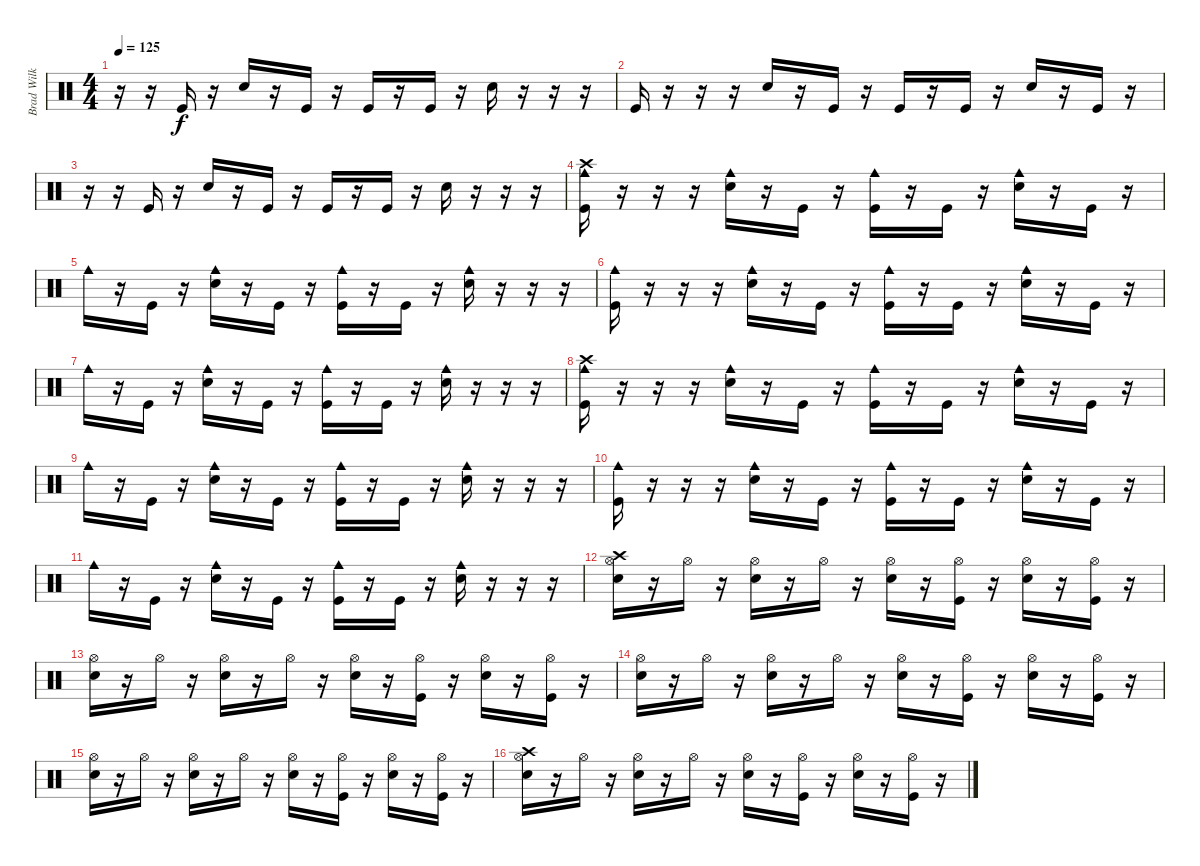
\track ("Brad Wilk - Drums" "Brad Wilk ") {instrument percussion}
\staff {score}
\articulation defaults
\ts (4 4)
\tempo 125
\clef neutral
\ks c
r.16{dy f} r.16 "Kick (hit)".16 r.16 "Snare (hit) 2".16 r.16 "Kick (hit)".16 r.16 "Kick (hit)".16 r.16 "Kick (hit)".16 r.16 "Snare (hit) 2".16 r.16 r.16 r.16 |
"Kick (hit)".16 r.16 r.16 r.16 "Snare (hit) 2".16 r.16 "Kick (hit)".16 r.16 "Kick (hit)".16 r.16 "Kick (hit)".16 r.16 "Snare (hit) 2".16 r.16 "Kick (hit)".16 r.16 |
r.16 r.16 "Kick (hit)".16 r.16 "Snare (hit) 2".16 r.16 "Kick (hit)".16 r.16 "Kick (hit)".16 r.16 "Kick (hit)".16 r.16 "Snare (hit) 2".16 r.16 r.16 r.16 |
("Crash high (hit)" "Cowbell medium (hit)" "Kick (hit)").16 r.16 r.16 r.16 ("Snare (hit) 2" "Cowbell medium (hit)").16 r.16 "Kick (hit)".16 r.16 ("Cowbell medium (hit)" "Kick (hit)").16 r.16 "Kick (hit)".16 r.16 ("Snare (hit) 2" "Cowbell medium (hit)").16 r.16 "Kick (hit)".16 r.16 |
"Cowbell medium (hit)".16 r.16 "Kick (hit)".16 r.16 ("Snare (hit) 2" "Cowbell medium (hit)").16 r.16 "Kick (hit)".16 r.16 ("Cowbell medium (hit)" "Kick (hit)").16 r.16 "Kick (hit)".16 r.16 ("Snare (hit) 2" "Cowbell medium (hit)").16 r.16 r.16 r.16 |
("Cowbell medium (hit)" "Kick (hit)").16 r.16 r.16 r.16 ("Snare (hit) 2" "Cowbell medium (hit)").16 r.16 "Kick (hit)".16 r.16 ("Cowbell medium (hit)" "Kick (hit)").16 r.16 "Kick (hit)".16 r.16 ("Snare (hit) 2" "Cowbell medium (hit)").16 r.16 "Kick (hit)".16 r.16 |
"Cowbell medium (hit)".16 r.16 "Kick (hit)".16 r.16 ("Snare (hit) 2" "Cowbell medium (hit)").16 r.16 "Kick (hit)".16 r.16 ("Cowbell medium (hit)" "Kick (hit)").16 r.16 "Kick (hit)".16 r.16 ("Snare (hit) 2" "Cowbell medium (hit)").16 r.16 r.16 r.16 |
("Crash high (hit)" "Cowbell medium (hit)" "Kick (hit)").16 r.16 r.16 r.16 ("Snare (hit) 2" "Cowbell medium (hit)").16 r.16 "Kick (hit)".16 r.16 ("Cowbell medium (hit)" "Kick (hit)").16 r.16 "Kick (hit)".16 r.16 ("Snare (hit) 2" "Cowbell medium (hit)").16 r.16 "Kick (hit)".16 r.16 |
"Cowbell medium (hit)".16 r.16 "Kick (hit)".16 r.16 ("Snare (hit) 2" "Cowbell medium (hit)").16 r.16 "Kick (hit)".16 r.16 ("Cowbell medium (hit)" "Kick (hit)").16 r.16 "Kick (hit)".16 r.16 ("Snare (hit) 2" "Cowbell medium (hit)").16 r.16 r.16 r.16 |
("Cowbell medium (hit)" "Kick (hit)").16 r.16 r.16 r.16 ("Snare (hit) 2" "Cowbell medium (hit)").16 r.16 "Kick (hit)".16 r.16 ("Cowbell medium (hit)" "Kick (hit)").16 r.16 "Kick (hit)".16 r.16 ("Snare (hit) 2" "Cowbell medium (hit)").16 r.16 "Kick (hit)".16 r.16 |
"Cowbell medium (hit)".16 r.16 "Kick (hit)".16 r.16 ("Snare (hit) 2" "Cowbell medium (hit)").16 r.16 "Kick (hit)".16 r.16 ("Cowbell medium (hit)" "Kick (hit)").16 r.16 "Kick (hit)".16 r.16 ("Snare (hit) 2" "Cowbell medium (hit)").16 r.16 r.16 r.16 |
("Crash high (hit)" "Snare (hit) 2" "Hi-Hat (open)").16 r.16 "Hi-Hat (open)".16 r.16 ("Snare (hit) 2" "Hi-Hat (open)").16 r.16 "Hi-Hat (open)".16 r.16 ("Snare (hit) 2" "Hi-Hat (open)").16 r.16 ("Hi-Hat (open)" "Kick (hit)").16 r.16 ("Snare (hit) 2" "Hi-Hat (open)").16 r.16 ("Hi-Hat (open)" "Kick (hit)").16 r.16 |
("Snare (hit) 2" "Hi-Hat (open)").16 r.16 "Hi-Hat (open)".16 r.16 ("Snare (hit) 2" "Hi-Hat (open)").16 r.16 "Hi-Hat (open)".16 r.16 ("Snare (hit) 2" "Hi-Hat (open)").16 r.16 ("Hi-Hat (open)" "Kick (hit)").16 r.16 ("Snare (hit) 2" "Hi-Hat (open)").16 r.16 ("Hi-Hat (open)" "Kick (hit)").16 r.16 |
("Snare (hit) 2" "Hi-Hat (open)").16 r.16 "Hi-Hat (open)".16 r.16 ("Snare (hit) 2" "Hi-Hat (open)").16 r.16 "Hi-Hat (open)".16 r.16 ("Snare (hit) 2" "Hi-Hat (open)").16 r.16 ("Hi-Hat (open)" "Kick (hit)").16 r.16 ("Snare (hit) 2" "Hi-Hat (open)").16 r.16 ("Hi-Hat (open)" "Kick (hit)").16 r.16 |
("Snare (hit) 2" "Hi-Hat (open)").16 r.16 "Hi-Hat (open)".16 r.16 ("Snare (hit) 2" "Hi-Hat (open)").16 r.16 "Hi-Hat (open)".16 r.16 ("Snare (hit) 2" "Hi-Hat (open)").16 r.16 ("Hi-Hat (open)" "Kick (hit)").16 r.16 ("Snare (hit) 2" "Hi-Hat (open)").16 r.16 ("Hi-Hat (open)" "Kick (hit)").16 r.16 |
("Crash high (hit)" "Snare (hit) 2" "Hi-Hat (open)").16 r.16 "Hi-Hat (open)".16 r.16 ("Snare (hit) 2" "Hi-Hat (open)").16 r.16 "Hi-Hat (open)".16 r.16 ("Snare (hit) 2" "Hi-Hat (open)").16 r.16 ("Hi-Hat (open)" "Kick (hit)").16 r.16 ("Snare (hit) 2" "Hi-Hat (open)").16 r.16 ("Hi-Hat (open)" "Kick (hit)").16 r.16
